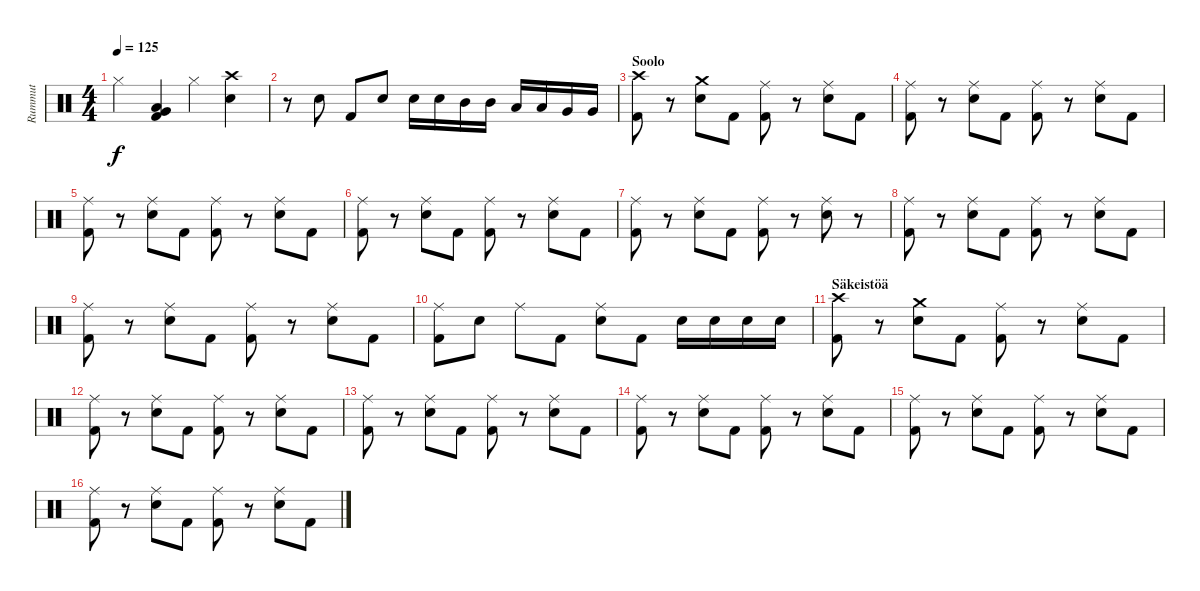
\track ("Rummut" "Rummut") {instrument percussion}
\staff {score}
\articulation defaults
\ts (4 4)
\tempo 125
\clef neutral
\ks c "Hi-Hat (closed)".4{dy f}
("Very Low Tom (hit)" "Low Tom (hit)" "Kick (hit) 2").4 "Hi-Hat (closed)".4 ("Crash high (hit)" "Snare (hit) 2").4 |
r.8 "Snare (hit) 2".8 "Kick (hit) 2".8 "Snare (hit) 2".8 "Snare (hit) 2".16 "Snare (hit) 2".16 "Mid Tom (hit)".16 "Mid Tom (hit)".16 "Low Tom (hit)".16 "Low Tom (hit)".16 "Very Low Tom (hit)".16 "Very Low Tom (hit)".16 |
\section ("" "Soolo")
("Crash high (hit)" "Kick (hit) 2").8 r.8 ("Crash medium (hit)" "Snare (hit) 2").8 "Kick (hit) 2".8 ("Ride (middle)" "Kick (hit) 2").8 r.8 ("Ride (middle)" "Snare (hit) 2").8 "Kick (hit) 2".8 |
("Ride (middle)" "Kick (hit) 2").8 r.8 ("Ride (middle)" "Snare (hit) 2").8 "Kick (hit) 2".8 ("Ride (middle)" "Kick (hit) 2").8 r.8 ("Ride (middle)" "Snare (hit) 2").8 "Kick (hit) 2".8 |
("Ride (middle)" "Kick (hit) 2").8 r.8 ("Ride (middle)" "Snare (hit) 2").8 "Kick (hit) 2".8 ("Ride (middle)" "Kick (hit) 2").8 r.8 ("Ride (middle)" "Snare (hit) 2").8 "Kick (hit) 2".8 |
("Ride (middle)" "Kick (hit) 2").8 r.8 ("Ride (middle)" "Snare (hit) 2").8 "Kick (hit) 2".8 ("Ride (middle)" "Kick (hit) 2").8 r.8 ("Ride (middle)" "Snare (hit) 2").8 "Kick (hit) 2".8 |
("Ride (middle)" "Kick (hit) 2").8 r.8 ("Ride (middle)" "Snare (hit) 2").8 "Kick (hit) 2".8 ("Ride (middle)" "Kick (hit) 2").8 r.8 ("Ride (middle)" "Snare (hit) 2").8 r.8 |
("Ride (middle)" "Kick (hit) 2").8 r.8 ("Ride (middle)" "Snare (hit) 2").8 "Kick (hit) 2".8 ("Ride (middle)" "Kick (hit) 2").8 r.8 ("Ride (middle)" "Snare (hit) 2").8 "Kick (hit) 2".8 |
("Ride (middle)" "Kick (hit) 2").8 r.8 ("Ride (middle)" "Snare (hit) 2").8 "Kick (hit) 2".8 ("Ride (middle)" "Kick (hit) 2").8 r.8 ("Ride (middle)" "Snare (hit) 2").8 "Kick (hit) 2".8 |
("Ride (middle)" "Kick (hit) 2").8 "Snare (hit) 2".8 "Ride (middle)".8 "Kick (hit) 2".8 ("Ride (middle)" "Snare (hit) 2").8 "Kick (hit) 2".8 "Snare (hit) 2".16 "Snare (hit) 2".16 "Snare (hit) 2".16 "Snare (hit) 2".16 |
\section ("" "Säkeistöä")
("Crash high (hit)" "Kick (hit) 2").8 r.8 ("Crash medium (hit)" "Snare (hit) 2").8 "Kick (hit) 2".8 ("Ride (middle)" "Kick (hit) 2").8 r.8 ("Ride (middle)" "Snare (hit) 2").8 "Kick (hit) 2".8 |
("Ride (middle)" "Kick (hit) 2").8 r.8 ("Ride (middle)" "Snare (hit) 2").8 "Kick (hit) 2".8 ("Ride (middle)" "Kick (hit) 2").8 r.8 ("Ride (middle)" "Snare (hit) 2").8 "Kick (hit) 2".8 |
("Ride (middle)" "Kick (hit) 2").8 r.8 ("Ride (middle)" "Snare (hit) 2").8 "Kick (hit) 2".8 ("Ride (middle)" "Kick (hit) 2").8 r.8 ("Ride (middle)" "Snare (hit) 2").8 "Kick (hit) 2".8 |
("Ride (middle)" "Kick (hit) 2").8 r.8 ("Ride (middle)" "Snare (hit) 2").8 "Kick (hit) 2".8 ("Ride (middle)" "Kick (hit) 2").8 r.8 ("Ride (middle)" "Snare (hit) 2").8 "Kick (hit) 2".8 |
("Ride (middle)" "Kick (hit) 2").8 r.8 ("Ride (middle)" "Snare (hit) 2").8 "Kick (hit) 2".8 ("Ride (middle)" "Kick (hit) 2").8 r.8 ("Ride (middle)" "Snare (hit) 2").8 "Kick (hit) 2".8 |
("Ride (middle)" "Kick (hit) 2").8 r.8 ("Ride (middle)" "Snare (hit) 2").8 "Kick (hit) 2".8 ("Ride (middle)" "Kick (hit) 2").8 r.8 ("Ride (middle)" "Snare (hit) 2").8 "Kick (hit) 2".8
